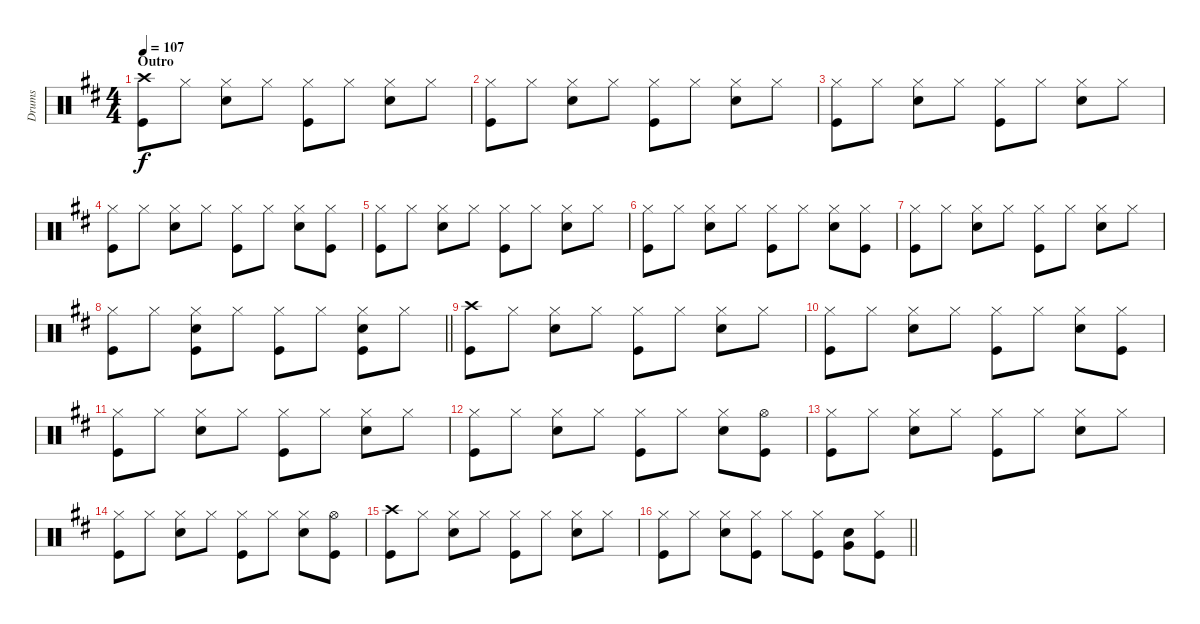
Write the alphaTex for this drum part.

\track ("Drums" "Drums") {instrument percussion}
\staff {score}
\articulation defaults
\ts (4 4)
\section ("" "Outro")
\tempo 107
\clef neutral
\ks d
("Crash high (hit)" "Kick (hit)").8{dy f} "Hi-Hat (closed)".8 ("Hi-Hat (closed)" "Snare (hit) 2").8 "Hi-Hat (closed)".8 ("Hi-Hat (closed)" "Kick (hit)").8 "Hi-Hat (closed)".8 ("Hi-Hat (closed)" "Snare (hit) 2").8 "Hi-Hat (closed)".8 |
("Hi-Hat (closed)" "Kick (hit)").8 "Hi-Hat (closed)".8 ("Hi-Hat (closed)" "Snare (hit) 2").8 "Hi-Hat (closed)".8 ("Hi-Hat (closed)" "Kick (hit)").8 "Hi-Hat (closed)".8 ("Hi-Hat (closed)" "Snare (hit) 2").8 "Hi-Hat (closed)".8 |
("Hi-Hat (closed)" "Kick (hit)").8 "Hi-Hat (closed)".8 ("Hi-Hat (closed)" "Snare (hit) 2").8 "Hi-Hat (closed)".8 ("Hi-Hat (closed)" "Kick (hit)").8 "Hi-Hat (closed)".8 ("Hi-Hat (closed)" "Snare (hit) 2").8 "Hi-Hat (closed)".8 |
("Hi-Hat (closed)" "Kick (hit)").8 "Hi-Hat (closed)".8 ("Hi-Hat (closed)" "Snare (hit) 2").8 "Hi-Hat (closed)".8 ("Hi-Hat (closed)" "Kick (hit)").8 "Hi-Hat (closed)".8 ("Hi-Hat (closed)" "Snare (hit) 2").8 ("Hi-Hat (closed)" "Kick (hit)").8 |
("Hi-Hat (closed)" "Kick (hit)").8 "Hi-Hat (closed)".8 ("Hi-Hat (closed)" "Snare (hit) 2").8 "Hi-Hat (closed)".8 ("Hi-Hat (closed)" "Kick (hit)").8 "Hi-Hat (closed)".8 ("Hi-Hat (closed)" "Snare (hit) 2").8 "Hi-Hat (closed)".8 |
("Hi-Hat (closed)" "Kick (hit)").8 "Hi-Hat (closed)".8 ("Hi-Hat (closed)" "Snare (hit) 2").8 "Hi-Hat (closed)".8 ("Hi-Hat (closed)" "Kick (hit)").8 "Hi-Hat (closed)".8 ("Hi-Hat (closed)" "Snare (hit) 2").8 ("Hi-Hat (closed)" "Kick (hit)").8 |
("Hi-Hat (closed)" "Kick (hit)").8 "Hi-Hat (closed)".8 ("Hi-Hat (closed)" "Snare (hit) 2").8 "Hi-Hat (closed)".8 ("Hi-Hat (closed)" "Kick (hit)").8 "Hi-Hat (closed)".8 ("Hi-Hat (closed)" "Snare (hit) 2").8 "Hi-Hat (closed)".8 |
\barLineRight lightlight
("Hi-Hat (closed)" "Kick (hit)").8 "Hi-Hat (closed)".8 ("Hi-Hat (closed)" "Snare (hit) 2" "Kick (hit)").8 "Hi-Hat (closed)".8 ("Hi-Hat (closed)" "Kick (hit)").8 "Hi-Hat (closed)".8 ("Hi-Hat (closed)" "Snare (hit) 2" "Kick (hit)").8 "Hi-Hat (closed)".8 |
("Crash high (hit)" "Kick (hit)").8 "Hi-Hat (closed)".8 ("Hi-Hat (closed)" "Snare (hit) 2").8 "Hi-Hat (closed)".8 ("Hi-Hat (closed)" "Kick (hit)").8 "Hi-Hat (closed)".8 ("Hi-Hat (closed)" "Snare (hit) 2").8 "Hi-Hat (closed)".8 |
("Hi-Hat (closed)" "Kick (hit)").8 "Hi-Hat (closed)".8 ("Hi-Hat (closed)" "Snare (hit) 2").8 "Hi-Hat (closed)".8 ("Hi-Hat (closed)" "Kick (hit)").8 "Hi-Hat (closed)".8 ("Hi-Hat (closed)" "Snare (hit) 2").8 ("Hi-Hat (closed)" "Kick (hit)").8 |
("Hi-Hat (closed)" "Kick (hit)").8 "Hi-Hat (closed)".8 ("Hi-Hat (closed)" "Snare (hit) 2").8 "Hi-Hat (closed)".8 ("Hi-Hat (closed)" "Kick (hit)").8 "Hi-Hat (closed)".8 ("Hi-Hat (closed)" "Snare (hit) 2").8 "Hi-Hat (closed)".8 |
("Hi-Hat (closed)" "Kick (hit)").8 "Hi-Hat (closed)".8 ("Hi-Hat (closed)" "Snare (hit) 2").8 "Hi-Hat (closed)".8 ("Hi-Hat (closed)" "Kick (hit)").8 "Hi-Hat (closed)".8 ("Hi-Hat (closed)" "Snare (hit) 2").8 ("Hi-Hat (open)" "Kick (hit)").8 |
("Hi-Hat (closed)" "Kick (hit)").8 "Hi-Hat (closed)".8 ("Hi-Hat (closed)" "Snare (hit) 2").8 "Hi-Hat (closed)".8 ("Hi-Hat (closed)" "Kick (hit)").8 "Hi-Hat (closed)".8 ("Hi-Hat (closed)" "Snare (hit) 2").8 "Hi-Hat (closed)".8 |
("Hi-Hat (closed)" "Kick (hit)").8 "Hi-Hat (closed)".8 ("Hi-Hat (closed)" "Snare (hit) 2").8 "Hi-Hat (closed)".8 ("Hi-Hat (closed)" "Kick (hit)").8 "Hi-Hat (closed)".8 ("Hi-Hat (closed)" "Snare (hit) 2").8 ("Hi-Hat (open)" "Kick (hit)").8 |
("Crash high (hit)" "Kick (hit)").8 "Hi-Hat (closed)".8 ("Hi-Hat (closed)" "Snare (hit) 2").8 "Hi-Hat (closed)".8 ("Hi-Hat (closed)" "Kick (hit)").8 "Hi-Hat (closed)".8 ("Hi-Hat (closed)" "Snare (hit) 2").8 "Hi-Hat (closed)".8 |
\barLineRight lightlight
("Hi-Hat (closed)" "Kick (hit)").8 "Hi-Hat (closed)".8 ("Hi-Hat (closed)" "Snare (hit) 2").8 ("Hi-Hat (closed)" "Kick (hit)").8 "Hi-Hat (closed)".8 ("Hi-Hat (closed)" "Kick (hit)").8 ("Snare (hit) 2" "Very Low Tom (hit)").8 ("Hi-Hat (closed)" "Kick (hit)").8
